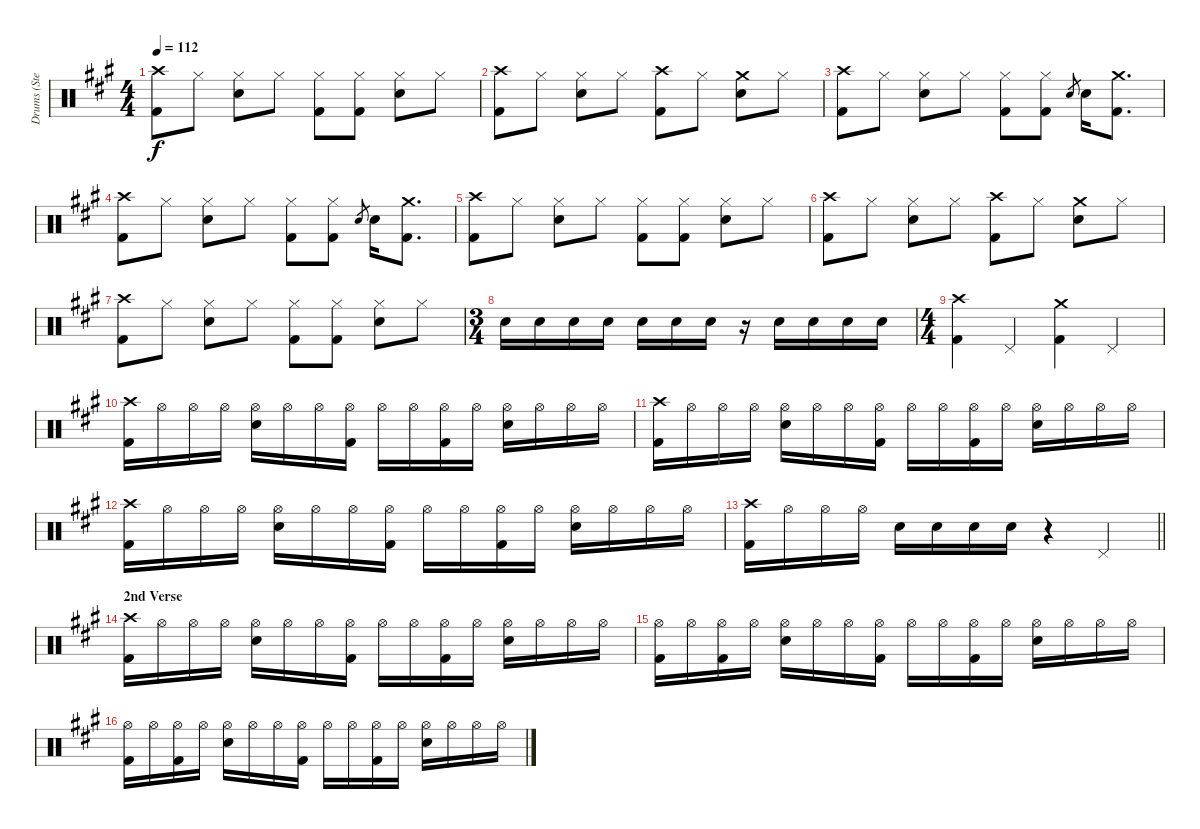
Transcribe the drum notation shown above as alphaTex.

\track ("Drums (Steven)" "Drums (Ste") {instrument percussion}
\staff {score}
\articulation defaults
\ts (4 4)
\tempo 112
\clef neutral
\ks f#minor
("Crash high (hit)" "Kick (hit) 2").8{dy f} "Hi-Hat (closed)".8 ("Hi-Hat (closed)" "Snare (hit) 2").8 "Hi-Hat (closed)".8 ("Hi-Hat (closed)" "Kick (hit) 2").8 ("Hi-Hat (closed)" "Kick (hit) 2").8 ("Hi-Hat (closed)" "Snare (hit) 2").8 "Hi-Hat (closed)".8 |
("Crash high (hit)" "Kick (hit) 2").8 "Hi-Hat (closed)".8 ("Hi-Hat (closed)" "Snare (hit) 2").8 "Hi-Hat (closed)".8 ("Crash high (hit)" "Kick (hit) 2").8 "Hi-Hat (closed)".8 ("Crash medium (hit)" "Snare (hit) 2").8 "Hi-Hat (closed)".8 |
("Crash high (hit)" "Kick (hit) 2").8 "Hi-Hat (closed)".8 ("Hi-Hat (closed)" "Snare (hit) 2").8 "Hi-Hat (closed)".8 ("Hi-Hat (closed)" "Kick (hit) 2").8 ("Hi-Hat (closed)" "Kick (hit) 2").8 "Snare (hit) 2".8{gr} "Snare (hit) 2".16 ("Crash medium (hit)" "Kick (hit) 2").8{d} |
("Crash high (hit)" "Kick (hit) 2").8 "Hi-Hat (closed)".8 ("Hi-Hat (closed)" "Snare (hit) 2").8 "Hi-Hat (closed)".8 ("Hi-Hat (closed)" "Kick (hit) 2").8 ("Hi-Hat (closed)" "Kick (hit) 2").8 "Snare (hit) 2".8{gr} "Snare (hit) 2".16 ("Crash medium (hit)" "Kick (hit) 2").8{d} |
("Crash high (hit)" "Kick (hit) 2").8 "Hi-Hat (closed)".8 ("Hi-Hat (closed)" "Snare (hit) 2").8 "Hi-Hat (closed)".8 ("Hi-Hat (closed)" "Kick (hit) 2").8 ("Hi-Hat (closed)" "Kick (hit) 2").8 ("Hi-Hat (closed)" "Snare (hit) 2").8 "Hi-Hat (closed)".8 |
("Crash high (hit)" "Kick (hit) 2").8 "Hi-Hat (closed)".8 ("Hi-Hat (closed)" "Snare (hit) 2").8 "Hi-Hat (closed)".8 ("Crash high (hit)" "Kick (hit) 2").8 "Hi-Hat (closed)".8 ("Crash medium (hit)" "Snare (hit) 2").8 "Hi-Hat (closed)".8 |
("Crash high (hit)" "Kick (hit) 2").8 "Hi-Hat (closed)".8 ("Hi-Hat (closed)" "Snare (hit) 2").8 "Hi-Hat (closed)".8 ("Hi-Hat (closed)" "Kick (hit) 2").8 ("Hi-Hat (closed)" "Kick (hit) 2").8 ("Hi-Hat (closed)" "Snare (hit) 2").8 "Hi-Hat (closed)".8 |
\ts (3 4)
"Snare (hit) 2".16 "Snare (hit) 2".16 "Snare (hit) 2".16 "Snare (hit) 2".16 "Snare (hit) 2".16 "Snare (hit) 2".16 "Snare (hit) 2".16 r.16 "Snare (hit) 2".16 "Snare (hit) 2".16 "Snare (hit) 2".16 "Snare (hit) 2".16 |
\ts (4 4)
("Crash high (hit)" "Kick (hit) 2").4 "Pedal Hi-Hat (hit)".4 ("Crash medium (hit)" "Kick (hit) 2").4 "Pedal Hi-Hat (hit)".4 |
("Crash high (hit)" "Kick (hit) 2").16 "Hi-Hat (open)".16 "Hi-Hat (open)".16 "Hi-Hat (open)".16 ("Hi-Hat (open)" "Snare (hit) 2").16 "Hi-Hat (open)".16 "Hi-Hat (open)".16 ("Hi-Hat (open)" "Kick (hit) 2").16 "Hi-Hat (open)".16 "Hi-Hat (open)".16 ("Hi-Hat (open)" "Kick (hit) 2").16 "Hi-Hat (open)".16 ("Hi-Hat (open)" "Snare (hit) 2").16 "Hi-Hat (open)".16 "Hi-Hat (open)".16 "Hi-Hat (open)".16 |
("Crash high (hit)" "Kick (hit) 2").16 "Hi-Hat (open)".16 "Hi-Hat (open)".16 "Hi-Hat (open)".16 ("Hi-Hat (open)" "Snare (hit) 2").16 "Hi-Hat (open)".16 "Hi-Hat (open)".16 ("Hi-Hat (open)" "Kick (hit) 2").16 "Hi-Hat (open)".16 "Hi-Hat (open)".16 ("Hi-Hat (open)" "Kick (hit) 2").16 "Hi-Hat (open)".16 ("Hi-Hat (open)" "Snare (hit) 2").16 "Hi-Hat (open)".16 "Hi-Hat (open)".16 "Hi-Hat (open)".16 |
("Crash high (hit)" "Kick (hit) 2").16 "Hi-Hat (open)".16 "Hi-Hat (open)".16 "Hi-Hat (open)".16 ("Hi-Hat (open)" "Snare (hit) 2").16 "Hi-Hat (open)".16 "Hi-Hat (open)".16 ("Hi-Hat (open)" "Kick (hit) 2").16 "Hi-Hat (open)".16 "Hi-Hat (open)".16 ("Hi-Hat (open)" "Kick (hit) 2").16 "Hi-Hat (open)".16 ("Hi-Hat (open)" "Snare (hit) 2").16 "Hi-Hat (open)".16 "Hi-Hat (open)".16 "Hi-Hat (open)".16 |
\barLineRight lightlight
("Crash high (hit)" "Kick (hit) 2").16 "Hi-Hat (open)".16 "Hi-Hat (open)".16 "Hi-Hat (open)".16 "Snare (hit) 2".16 "Snare (hit) 2".16 "Snare (hit) 2".16 "Snare (hit) 2".16 r.4 "Pedal Hi-Hat (hit)".4 |
\section ("" "2nd Verse")
("Crash high (hit)" "Kick (hit) 2").16 "Hi-Hat (open)".16 "Hi-Hat (open)".16 "Hi-Hat (open)".16 ("Hi-Hat (open)" "Snare (hit) 2").16 "Hi-Hat (open)".16 "Hi-Hat (open)".16 ("Hi-Hat (open)" "Kick (hit) 2").16 "Hi-Hat (open)".16 "Hi-Hat (open)".16 ("Hi-Hat (open)" "Kick (hit) 2").16 "Hi-Hat (open)".16 ("Hi-Hat (open)" "Snare (hit) 2").16 "Hi-Hat (open)".16 "Hi-Hat (open)".16 "Hi-Hat (open)".16 |
("Hi-Hat (open)" "Kick (hit) 2").16 "Hi-Hat (open)".16 ("Hi-Hat (open)" "Kick (hit) 2").16 "Hi-Hat (open)".16 ("Hi-Hat (open)" "Snare (hit) 2").16 "Hi-Hat (open)".16 "Hi-Hat (open)".16 ("Hi-Hat (open)" "Kick (hit) 2").16 "Hi-Hat (open)".16 "Hi-Hat (open)".16 ("Hi-Hat (open)" "Kick (hit) 2").16 "Hi-Hat (open)".16 ("Hi-Hat (open)" "Snare (hit) 2").16 "Hi-Hat (open)".16 "Hi-Hat (open)".16 "Hi-Hat (open)".16 |
("Hi-Hat (open)" "Kick (hit) 2").16 "Hi-Hat (open)".16 ("Hi-Hat (open)" "Kick (hit) 2").16 "Hi-Hat (open)".16 ("Hi-Hat (open)" "Snare (hit) 2").16 "Hi-Hat (open)".16 "Hi-Hat (open)".16 ("Hi-Hat (open)" "Kick (hit) 2").16 "Hi-Hat (open)".16 "Hi-Hat (open)".16 ("Hi-Hat (open)" "Kick (hit) 2").16 "Hi-Hat (open)".16 ("Hi-Hat (open)" "Snare (hit) 2").16 "Hi-Hat (open)".16 "Hi-Hat (open)".16 "Hi-Hat (open)".16
